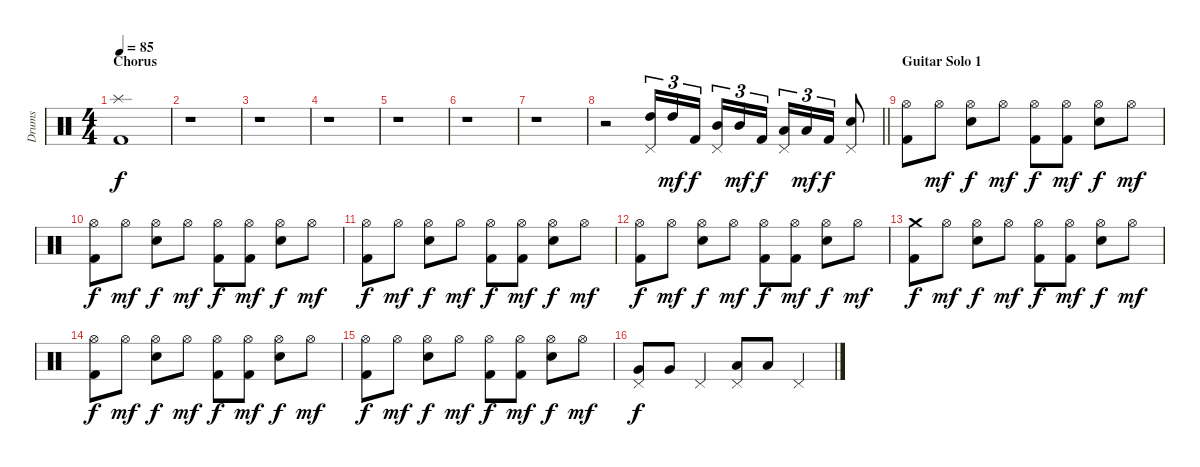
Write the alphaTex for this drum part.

\track ("Drums" "Drums") {instrument percussion}
\staff {score}
\articulation defaults
\ts (4 4)
\section ("" "Chorus")
\tempo 85
\clef neutral
\ks c
("Splash (hit)" "Kick (hit) 2").1{dy f} |
r.1 |
r.1 |
r.1 |
r.1 |
r.1 |
r.1 |
\barLineRight lightlight
r.2 ("Pedal Hi-Hat (hit)" "High Tom (hit)").16{tu (3 2)} "High Tom (hit)".16{tu (3 2) dy mf} "Kick (hit) 2".16{tu (3 2) dy f beam splitsecondary} ("Pedal Hi-Hat (hit)" "Mid Tom (hit)").16{tu (3 2)} "Mid Tom (hit)".16{tu (3 2) dy mf} "Kick (hit) 2".16{tu (3 2) dy f} ("Pedal Hi-Hat (hit)" "Low Tom (hit)").16{tu (3 2)} "Low Tom (hit)".16{tu (3 2) dy mf} "Kick (hit) 2".16{tu (3 2) dy f} ("Pedal Hi-Hat (hit)" "Snare (hit) 2").8 |
\section ("" "Guitar Solo 1")
("Hi-Hat (open)" "Kick (hit) 2").8 "Hi-Hat (open)".8{dy mf} ("Hi-Hat (open)" "Snare (hit) 2").8{dy f} "Hi-Hat (open)".8{dy mf} ("Hi-Hat (open)" "Kick (hit) 2").8{dy f} ("Hi-Hat (open)" "Kick (hit) 2").8{dy mf} ("Hi-Hat (open)" "Snare (hit) 2").8{dy f} "Hi-Hat (open)".8{dy mf} |
("Hi-Hat (open)" "Kick (hit) 2").8{dy f} "Hi-Hat (open)".8{dy mf} ("Hi-Hat (open)" "Snare (hit) 2").8{dy f} "Hi-Hat (open)".8{dy mf} ("Hi-Hat (open)" "Kick (hit) 2").8{dy f} ("Hi-Hat (open)" "Kick (hit) 2").8{dy mf} ("Hi-Hat (open)" "Snare (hit) 2").8{dy f} "Hi-Hat (open)".8{dy mf} |
("Hi-Hat (open)" "Kick (hit) 2").8{dy f} "Hi-Hat (open)".8{dy mf} ("Hi-Hat (open)" "Snare (hit) 2").8{dy f} "Hi-Hat (open)".8{dy mf} ("Hi-Hat (open)" "Kick (hit) 2").8{dy f} ("Hi-Hat (open)" "Kick (hit) 2").8{dy mf} ("Hi-Hat (open)" "Snare (hit) 2").8{dy f} "Hi-Hat (open)".8{dy mf} |
("Hi-Hat (open)" "Kick (hit) 2").8{dy f} "Hi-Hat (open)".8{dy mf} ("Hi-Hat (open)" "Snare (hit) 2").8{dy f} "Hi-Hat (open)".8{dy mf} ("Hi-Hat (open)" "Kick (hit) 2").8{dy f} ("Hi-Hat (open)" "Kick (hit) 2").8{dy mf} ("Hi-Hat (open)" "Snare (hit) 2").8{dy f} "Hi-Hat (open)".8{dy mf} |
("Crash medium (hit)" "Kick (hit) 2").8{dy f} "Hi-Hat (open)".8{dy mf} ("Hi-Hat (open)" "Snare (hit) 2").8{dy f} "Hi-Hat (open)".8{dy mf} ("Hi-Hat (open)" "Kick (hit) 2").8{dy f} ("Hi-Hat (open)" "Kick (hit) 2").8{dy mf} ("Hi-Hat (open)" "Snare (hit) 2").8{dy f} "Hi-Hat (open)".8{dy mf} |
("Hi-Hat (open)" "Kick (hit) 2").8{dy f} "Hi-Hat (open)".8{dy mf} ("Hi-Hat (open)" "Snare (hit) 2").8{dy f} "Hi-Hat (open)".8{dy mf} ("Hi-Hat (open)" "Kick (hit) 2").8{dy f} ("Hi-Hat (open)" "Kick (hit) 2").8{dy mf} ("Hi-Hat (open)" "Snare (hit) 2").8{dy f} "Hi-Hat (open)".8{dy mf} |
("Hi-Hat (open)" "Kick (hit) 2").8{dy f} "Hi-Hat (open)".8{dy mf} ("Hi-Hat (open)" "Snare (hit) 2").8{dy f} "Hi-Hat (open)".8{dy mf} ("Hi-Hat (open)" "Kick (hit) 2").8{dy f} ("Hi-Hat (open)" "Kick (hit) 2").8{dy mf} ("Hi-Hat (open)" "Snare (hit) 2").8{dy f} "Hi-Hat (open)".8{dy mf} |
("Pedal Hi-Hat (hit)" "Very Low Tom (hit)").8{dy f} "Very Low Tom (hit)".8 "Pedal Hi-Hat (hit)".4 ("Pedal Hi-Hat (hit)" "Low Floor Tom (hit)").8 "Low Floor Tom (hit)".8 "Pedal Hi-Hat (hit)".4
